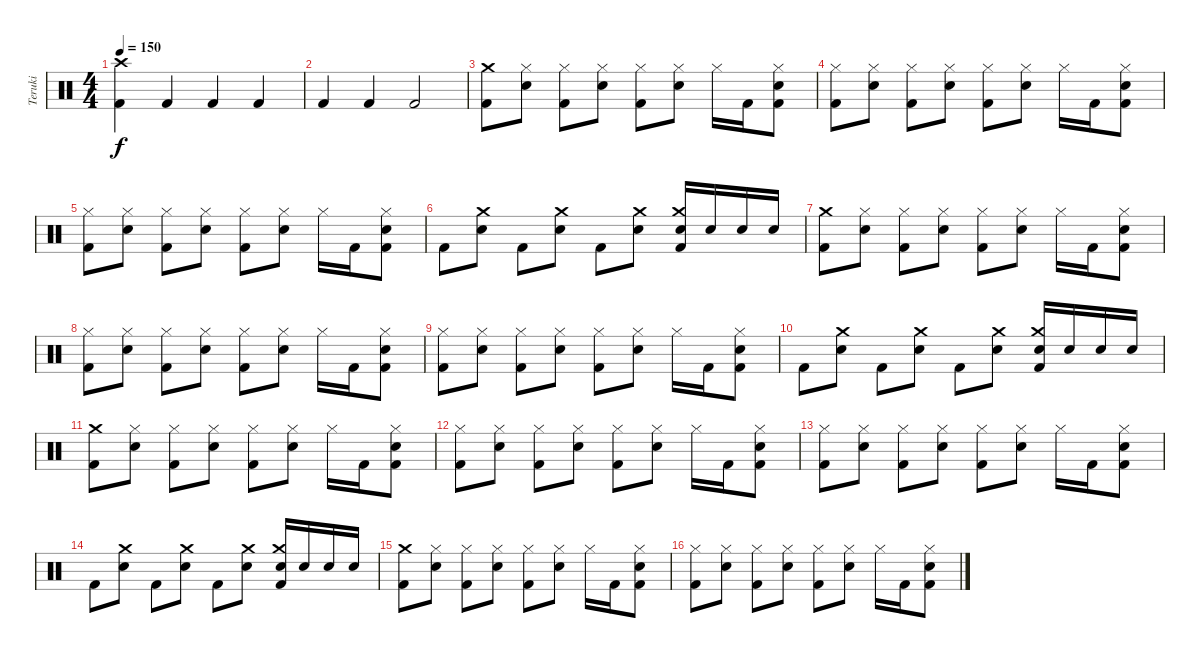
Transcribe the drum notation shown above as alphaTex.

\track ("Teruki" "Teruki") {instrument percussion}
\staff {score}
\articulation defaults
\ts (4 4)
\tempo 150
\clef neutral
\ks c
("Crash high (hit)" "Kick (hit) 2").4{dy f} "Kick (hit) 2".4 "Kick (hit) 2".4 "Kick (hit) 2".4 |
"Kick (hit) 2".4 "Kick (hit) 2".4 "Kick (hit) 2".2 |
("Crash medium (hit)" "Kick (hit) 2").8 ("Hi-Hat (closed)" "Electric Snare (hit)").8 ("Hi-Hat (closed)" "Kick (hit) 2").8 ("Hi-Hat (closed)" "Electric Snare (hit)").8 ("Hi-Hat (closed)" "Kick (hit) 2").8 ("Hi-Hat (closed)" "Electric Snare (hit)").8 "Hi-Hat (closed)".16 "Kick (hit) 2".16 ("Hi-Hat (closed)" "Electric Snare (hit)" "Kick (hit) 2").8 |
("Hi-Hat (closed)" "Kick (hit) 2").8 ("Hi-Hat (closed)" "Electric Snare (hit)").8 ("Hi-Hat (closed)" "Kick (hit) 2").8 ("Hi-Hat (closed)" "Electric Snare (hit)").8 ("Hi-Hat (closed)" "Kick (hit) 2").8 ("Hi-Hat (closed)" "Electric Snare (hit)").8 "Hi-Hat (closed)".16 "Kick (hit) 2".16 ("Hi-Hat (closed)" "Electric Snare (hit)" "Kick (hit) 2").8 |
("Hi-Hat (closed)" "Kick (hit) 2").8 ("Hi-Hat (closed)" "Electric Snare (hit)").8 ("Hi-Hat (closed)" "Kick (hit) 2").8 ("Hi-Hat (closed)" "Electric Snare (hit)").8 ("Hi-Hat (closed)" "Kick (hit) 2").8 ("Hi-Hat (closed)" "Electric Snare (hit)").8 "Hi-Hat (closed)".16 "Kick (hit) 2".16 ("Hi-Hat (closed)" "Electric Snare (hit)" "Kick (hit) 2").8 |
"Kick (hit) 2".8 ("Crash medium (hit)" "Electric Snare (hit)").8 "Kick (hit) 2".8 ("Crash medium (hit)" "Electric Snare (hit)").8 "Kick (hit) 2".8 ("Crash medium (hit)" "Electric Snare (hit)").8 ("Crash medium (hit)" "Electric Snare (hit)" "Kick (hit) 2").16 "Electric Snare (hit)".16 "Electric Snare (hit)".16 "Electric Snare (hit)".16 |
("Crash medium (hit)" "Kick (hit) 2").8 ("Hi-Hat (closed)" "Electric Snare (hit)").8 ("Hi-Hat (closed)" "Kick (hit) 2").8 ("Hi-Hat (closed)" "Electric Snare (hit)").8 ("Hi-Hat (closed)" "Kick (hit) 2").8 ("Hi-Hat (closed)" "Electric Snare (hit)").8 "Hi-Hat (closed)".16 "Kick (hit) 2".16 ("Hi-Hat (closed)" "Electric Snare (hit)" "Kick (hit) 2").8 |
("Hi-Hat (closed)" "Kick (hit) 2").8 ("Hi-Hat (closed)" "Electric Snare (hit)").8 ("Hi-Hat (closed)" "Kick (hit) 2").8 ("Hi-Hat (closed)" "Electric Snare (hit)").8 ("Hi-Hat (closed)" "Kick (hit) 2").8 ("Hi-Hat (closed)" "Electric Snare (hit)").8 "Hi-Hat (closed)".16 "Kick (hit) 2".16 ("Hi-Hat (closed)" "Electric Snare (hit)" "Kick (hit) 2").8 |
("Hi-Hat (closed)" "Kick (hit) 2").8 ("Hi-Hat (closed)" "Electric Snare (hit)").8 ("Hi-Hat (closed)" "Kick (hit) 2").8 ("Hi-Hat (closed)" "Electric Snare (hit)").8 ("Hi-Hat (closed)" "Kick (hit) 2").8 ("Hi-Hat (closed)" "Electric Snare (hit)").8 "Hi-Hat (closed)".16 "Kick (hit) 2".16 ("Hi-Hat (closed)" "Electric Snare (hit)" "Kick (hit) 2").8 |
"Kick (hit) 2".8 ("Crash medium (hit)" "Electric Snare (hit)").8 "Kick (hit) 2".8 ("Crash medium (hit)" "Electric Snare (hit)").8 "Kick (hit) 2".8 ("Crash medium (hit)" "Electric Snare (hit)").8 ("Crash medium (hit)" "Electric Snare (hit)" "Kick (hit) 2").16 "Electric Snare (hit)".16 "Electric Snare (hit)".16 "Electric Snare (hit)".16 |
("Crash medium (hit)" "Kick (hit) 2").8 ("Hi-Hat (closed)" "Electric Snare (hit)").8 ("Hi-Hat (closed)" "Kick (hit) 2").8 ("Hi-Hat (closed)" "Electric Snare (hit)").8 ("Hi-Hat (closed)" "Kick (hit) 2").8 ("Hi-Hat (closed)" "Electric Snare (hit)").8 "Hi-Hat (closed)".16 "Kick (hit) 2".16 ("Hi-Hat (closed)" "Electric Snare (hit)" "Kick (hit) 2").8 |
("Hi-Hat (closed)" "Kick (hit) 2").8 ("Hi-Hat (closed)" "Electric Snare (hit)").8 ("Hi-Hat (closed)" "Kick (hit) 2").8 ("Hi-Hat (closed)" "Electric Snare (hit)").8 ("Hi-Hat (closed)" "Kick (hit) 2").8 ("Hi-Hat (closed)" "Electric Snare (hit)").8 "Hi-Hat (closed)".16 "Kick (hit) 2".16 ("Hi-Hat (closed)" "Electric Snare (hit)" "Kick (hit) 2").8 |
("Hi-Hat (closed)" "Kick (hit) 2").8 ("Hi-Hat (closed)" "Electric Snare (hit)").8 ("Hi-Hat (closed)" "Kick (hit) 2").8 ("Hi-Hat (closed)" "Electric Snare (hit)").8 ("Hi-Hat (closed)" "Kick (hit) 2").8 ("Hi-Hat (closed)" "Electric Snare (hit)").8 "Hi-Hat (closed)".16 "Kick (hit) 2".16 ("Hi-Hat (closed)" "Electric Snare (hit)" "Kick (hit) 2").8 |
"Kick (hit) 2".8 ("Crash medium (hit)" "Electric Snare (hit)").8 "Kick (hit) 2".8 ("Crash medium (hit)" "Electric Snare (hit)").8 "Kick (hit) 2".8 ("Crash medium (hit)" "Electric Snare (hit)").8 ("Crash medium (hit)" "Electric Snare (hit)" "Kick (hit) 2").16 "Electric Snare (hit)".16 "Electric Snare (hit)".16 "Electric Snare (hit)".16 |
("Crash medium (hit)" "Kick (hit) 2").8 ("Hi-Hat (closed)" "Electric Snare (hit)").8 ("Hi-Hat (closed)" "Kick (hit) 2").8 ("Hi-Hat (closed)" "Electric Snare (hit)").8 ("Hi-Hat (closed)" "Kick (hit) 2").8 ("Hi-Hat (closed)" "Electric Snare (hit)").8 "Hi-Hat (closed)".16 "Kick (hit) 2".16 ("Hi-Hat (closed)" "Electric Snare (hit)" "Kick (hit) 2").8 |
("Hi-Hat (closed)" "Kick (hit) 2").8 ("Hi-Hat (closed)" "Electric Snare (hit)").8 ("Hi-Hat (closed)" "Kick (hit) 2").8 ("Hi-Hat (closed)" "Electric Snare (hit)").8 ("Hi-Hat (closed)" "Kick (hit) 2").8 ("Hi-Hat (closed)" "Electric Snare (hit)").8 "Hi-Hat (closed)".16 "Kick (hit) 2".16 ("Hi-Hat (closed)" "Electric Snare (hit)" "Kick (hit) 2").8
